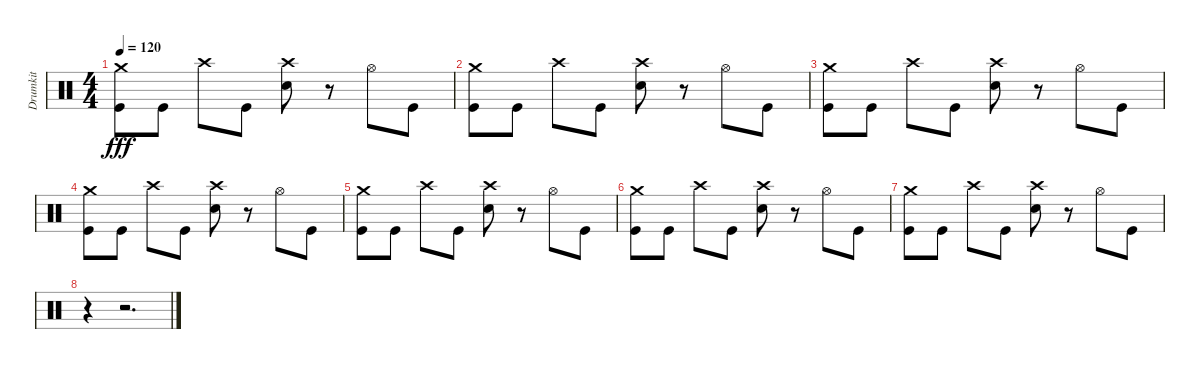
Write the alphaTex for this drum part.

\track ("Drumkit" "Drumkit") {instrument percussion}
\staff {score}
\articulation defaults
\ts (4 4)
\tempo 120
\clef neutral
\ks c
("Kick (hit)" "Crash medium (hit)").8{dy fff} "Kick (hit)".8 "Crash high (hit)".8 "Kick (hit)".8 ("Snare (hit) 2" "Crash high (hit)").8 r.8 "Hi-Hat (open)".8 "Kick (hit)".8 |
("Kick (hit)" "Crash medium (hit)").8 "Kick (hit)".8 "Crash high (hit)".8 "Kick (hit)".8 ("Snare (hit) 2" "Crash high (hit)").8 r.8 "Hi-Hat (open)".8 "Kick (hit)".8 |
("Kick (hit)" "Crash medium (hit)").8 "Kick (hit)".8 "Crash high (hit)".8 "Kick (hit)".8 ("Snare (hit) 2" "Crash high (hit)").8 r.8 "Hi-Hat (open)".8 "Kick (hit)".8 |
("Kick (hit)" "Crash medium (hit)").8 "Kick (hit)".8 "Crash high (hit)".8 "Kick (hit)".8 ("Snare (hit) 2" "Crash high (hit)").8 r.8 "Hi-Hat (open)".8 "Kick (hit)".8 |
("Kick (hit)" "Crash medium (hit)").8 "Kick (hit)".8 "Crash high (hit)".8 "Kick (hit)".8 ("Snare (hit) 2" "Crash high (hit)").8 r.8 "Hi-Hat (open)".8 "Kick (hit)".8 |
("Kick (hit)" "Crash medium (hit)").8 "Kick (hit)".8 "Crash high (hit)".8 "Kick (hit)".8 ("Snare (hit) 2" "Crash high (hit)").8 r.8 "Hi-Hat (open)".8 "Kick (hit)".8 |
("Kick (hit)" "Crash medium (hit)").8 "Kick (hit)".8 "Crash high (hit)".8 "Kick (hit)".8 ("Snare (hit) 2" "Crash high (hit)").8 r.8 "Hi-Hat (open)".8 "Kick (hit)".8 |
r.4 r.2{d}
